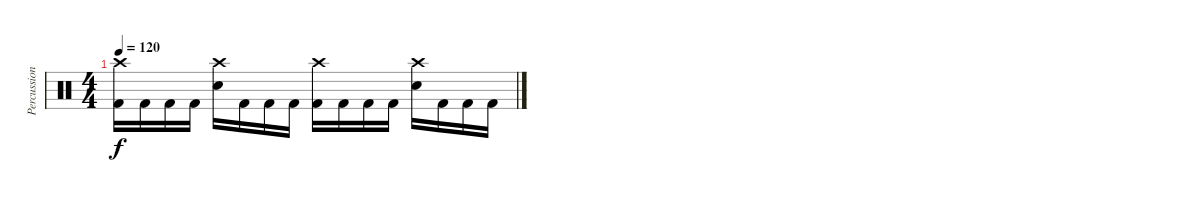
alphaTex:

\track ("Percussion" "Percussion") {instrument percussion}
\staff {score}
\articulation defaults
\ts (4 4)
\tempo 120
\clef neutral
\ks c
("Kick (hit) 2" "Crash high (hit)").16{dy f} "Kick (hit) 2".16 "Kick (hit) 2".16 "Kick (hit) 2".16 ("Electric Snare (hit)" "Crash high (hit)").16 "Kick (hit) 2".16 "Kick (hit) 2".16 "Kick (hit) 2".16 ("Kick (hit) 2" "Crash high (hit)").16 "Kick (hit) 2".16 "Kick (hit) 2".16 "Kick (hit) 2".16 ("Electric Snare (hit)" "Crash high (hit)").16 "Kick (hit) 2".16 "Kick (hit) 2".16 "Kick (hit) 2".16
